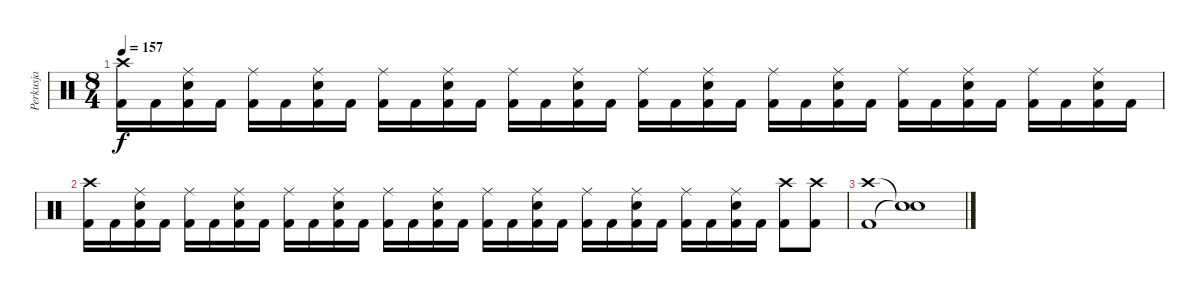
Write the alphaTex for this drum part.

\track ("Perkusja" "Perkusja") {instrument percussion}
\staff {score}
\articulation defaults
\ts (8 4)
\tempo 157
\clef neutral
\ks c
("Crash high (hit)" "Kick (hit) 2").16{dy f} "Kick (hit) 2".16 ("Ride (middle)" "Snare (hit) 2" "Kick (hit) 2").16 "Kick (hit) 2".16 ("Ride (middle)" "Kick (hit) 2").16 "Kick (hit) 2".16 ("Ride (middle)" "Snare (hit) 2" "Kick (hit) 2").16 "Kick (hit) 2".16 ("Ride (middle)" "Kick (hit) 2").16 "Kick (hit) 2".16 ("Ride (middle)" "Snare (hit) 2" "Kick (hit) 2").16 "Kick (hit) 2".16 ("Ride (middle)" "Kick (hit) 2").16 "Kick (hit) 2".16 ("Ride (middle)" "Snare (hit) 2" "Kick (hit) 2").16 "Kick (hit) 2".16 ("Ride (middle)" "Kick (hit) 2").16 "Kick (hit) 2".16 ("Ride (middle)" "Snare (hit) 2" "Kick (hit) 2").16 "Kick (hit) 2".16 ("Ride (middle)" "Kick (hit) 2").16 "Kick (hit) 2".16 ("Ride (middle)" "Snare (hit) 2" "Kick (hit) 2").16 "Kick (hit) 2".16 ("Ride (middle)" "Kick (hit) 2").16 "Kick (hit) 2".16 ("Ride (middle)" "Snare (hit) 2" "Kick (hit) 2").16 "Kick (hit) 2".16 ("Ride (middle)" "Kick (hit) 2").16 "Kick (hit) 2".16 ("Ride (middle)" "Snare (hit) 2" "Kick (hit) 2").16 "Kick (hit) 2".16 |
("Crash high (hit)" "Kick (hit) 2").16 "Kick (hit) 2".16 ("Ride (middle)" "Snare (hit) 2" "Kick (hit) 2").16 "Kick (hit) 2".16 ("Ride (middle)" "Kick (hit) 2").16 "Kick (hit) 2".16 ("Ride (middle)" "Snare (hit) 2" "Kick (hit) 2").16 "Kick (hit) 2".16 ("Ride (middle)" "Kick (hit) 2").16 "Kick (hit) 2".16 ("Ride (middle)" "Snare (hit) 2" "Kick (hit) 2").16 "Kick (hit) 2".16 ("Ride (middle)" "Kick (hit) 2").16 "Kick (hit) 2".16 ("Ride (middle)" "Snare (hit) 2" "Kick (hit) 2").16 "Kick (hit) 2".16 ("Ride (middle)" "Kick (hit) 2").16 "Kick (hit) 2".16 ("Ride (middle)" "Snare (hit) 2" "Kick (hit) 2").16 "Kick (hit) 2".16 ("Ride (middle)" "Kick (hit) 2").16 "Kick (hit) 2".16 ("Ride (middle)" "Snare (hit) 2" "Kick (hit) 2").16 "Kick (hit) 2".16 ("Ride (middle)" "Kick (hit) 2").16 "Kick (hit) 2".16 ("Ride (middle)" "Snare (hit) 2" "Kick (hit) 2").16 "Kick (hit) 2".16 ("Crash high (hit)" "Kick (hit) 2").8 ("Crash high (hit)" "Kick (hit) 2").8 |
("Crash high (hit)" "Kick (hit) 2").1 ("Snare (hit)"{t} "Snare (hit)"{t}).1
